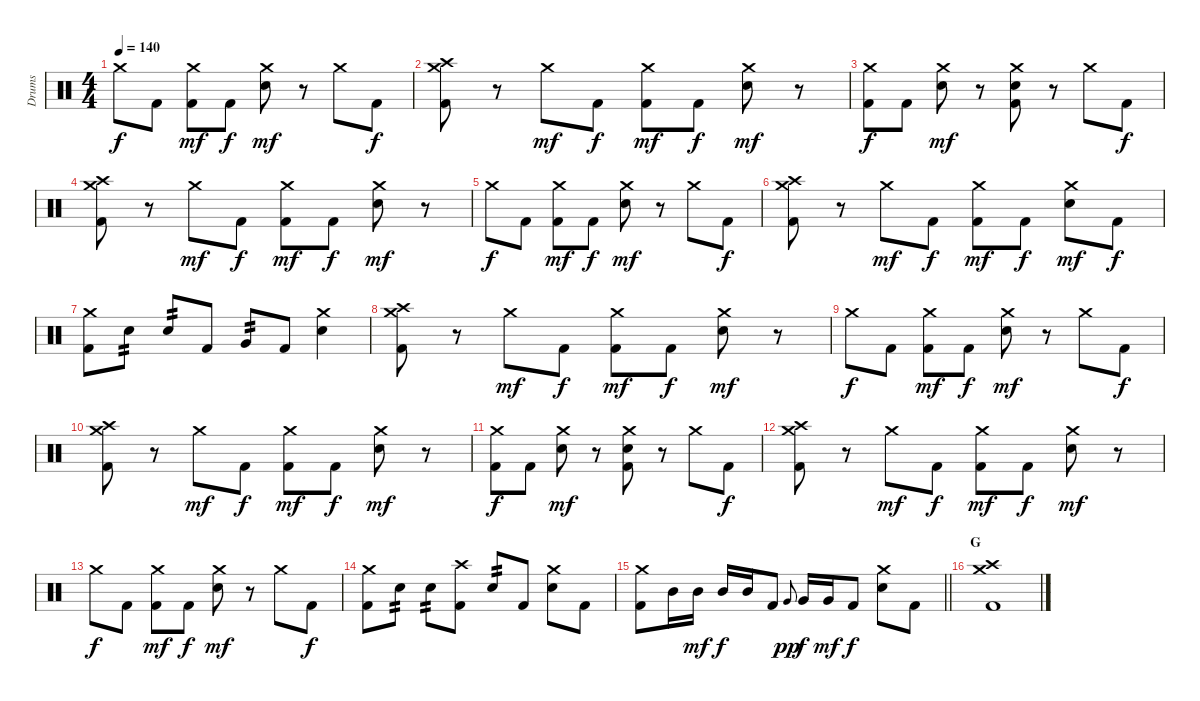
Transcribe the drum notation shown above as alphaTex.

\track ("Drums" "Drums") {instrument percussion}
\staff {score}
\articulation defaults
\ts (4 4)
\tempo 140
\clef neutral
\ks c "Crash medium (hit)".8{dy f} "Kick (hit) 2".8
("Crash medium (hit)" "Kick (hit) 2").8{dy mf} "Kick (hit) 2".8{dy f} ("Crash medium (hit)" "Snare (hit) 2").8{dy mf} r.8 "Crash medium (hit)".8 "Kick (hit) 2".8{dy f} |
("Crash high (hit)" "Crash medium (hit)" "Kick (hit) 2").8 r.8 "Crash medium (hit)".8{dy mf} "Kick (hit) 2".8{dy f} ("Crash medium (hit)" "Kick (hit) 2").8{dy mf} "Kick (hit) 2".8{dy f} ("Crash medium (hit)" "Snare (hit) 2").8{dy mf} r.8 |
("Crash medium (hit)" "Kick (hit) 2").8{dy f} "Kick (hit) 2".8 ("Crash medium (hit)" "Snare (hit) 2").8{dy mf} r.8 ("Crash medium (hit)" "Snare (hit) 2" "Kick (hit) 2").8 r.8 "Crash medium (hit)".8 "Kick (hit) 2".8{dy f} |
("Crash high (hit)" "Crash medium (hit)" "Kick (hit) 2").8 r.8 "Crash medium (hit)".8{dy mf} "Kick (hit) 2".8{dy f} ("Crash medium (hit)" "Kick (hit) 2").8{dy mf} "Kick (hit) 2".8{dy f} ("Crash medium (hit)" "Snare (hit) 2").8{dy mf} r.8 |
"Crash medium (hit)".8{dy f} "Kick (hit) 2".8 ("Crash medium (hit)" "Kick (hit) 2").8{dy mf} "Kick (hit) 2".8{dy f} ("Crash medium (hit)" "Snare (hit) 2").8{dy mf} r.8 "Crash medium (hit)".8 "Kick (hit) 2".8{dy f} |
("Crash high (hit)" "Crash medium (hit)" "Kick (hit) 2").8 r.8 "Crash medium (hit)".8{dy mf} "Kick (hit) 2".8{dy f} ("Crash medium (hit)" "Kick (hit) 2").8{dy mf} "Kick (hit) 2".8{dy f} ("Crash medium (hit)" "Snare (hit) 2").8{dy mf} "Kick (hit) 2".8{dy f} |
("Crash medium (hit)" "Kick (hit) 2").8 "Snare (hit) 2".8{tp 2} "Snare (hit) 2".8{tp 2} "Kick (hit) 2".8 "Very Low Tom (hit)".8{tp 2} "Kick (hit) 2".8 ("Crash medium (hit)" "Snare (hit) 2").4 |
("Crash high (hit)" "Crash medium (hit)" "Kick (hit) 2").8 r.8 "Crash medium (hit)".8{dy mf} "Kick (hit) 2".8{dy f} ("Crash medium (hit)" "Kick (hit) 2").8{dy mf} "Kick (hit) 2".8{dy f} ("Crash medium (hit)" "Snare (hit) 2").8{dy mf} r.8 |
"Crash medium (hit)".8{dy f} "Kick (hit) 2".8 ("Crash medium (hit)" "Kick (hit) 2").8{dy mf} "Kick (hit) 2".8{dy f} ("Crash medium (hit)" "Snare (hit) 2").8{dy mf} r.8 "Crash medium (hit)".8 "Kick (hit) 2".8{dy f} |
("Crash high (hit)" "Crash medium (hit)" "Kick (hit) 2").8 r.8 "Crash medium (hit)".8{dy mf} "Kick (hit) 2".8{dy f} ("Crash medium (hit)" "Kick (hit) 2").8{dy mf} "Kick (hit) 2".8{dy f} ("Crash medium (hit)" "Snare (hit) 2").8{dy mf} r.8 |
("Crash medium (hit)" "Kick (hit) 2").8{dy f} "Kick (hit) 2".8 ("Crash medium (hit)" "Snare (hit) 2").8{dy mf} r.8 ("Crash medium (hit)" "Snare (hit) 2" "Kick (hit) 2").8 r.8 "Crash medium (hit)".8 "Kick (hit) 2".8{dy f} |
("Crash high (hit)" "Crash medium (hit)" "Kick (hit) 2").8 r.8 "Crash medium (hit)".8{dy mf} "Kick (hit) 2".8{dy f} ("Crash medium (hit)" "Kick (hit) 2").8{dy mf} "Kick (hit) 2".8{dy f} ("Crash medium (hit)" "Snare (hit) 2").8{dy mf} r.8 |
"Crash medium (hit)".8{dy f} "Kick (hit) 2".8 ("Crash medium (hit)" "Kick (hit) 2").8{dy mf} "Kick (hit) 2".8{dy f} ("Crash medium (hit)" "Snare (hit) 2").8{dy mf} r.8 "Crash medium (hit)".8 "Kick (hit) 2".8{dy f} |
("Crash medium (hit)" "Kick (hit) 2").8 "Snare (hit) 2".8{tp 2} "Snare (hit) 2".8{tp 2} ("Crash high (hit)" "Kick (hit) 2").8 "Snare (hit) 2".8{tp 2} "Kick (hit) 2".8 ("Crash medium (hit)" "Snare (hit) 2").8 "Kick (hit) 2".8 |
\barLineRight lightlight
("Crash medium (hit)" "Kick (hit) 2").8 "Mid Tom (hit)".16 "Mid Tom (hit)".16{dy mf} "Mid Tom (hit)".16{dy f} "Mid Tom (hit)".16 "Kick (hit) 2".8 "Very Low Tom (hit)".8{gr onbeat dy pp} "Very Low Tom (hit)".16{dy f} "Very Low Tom (hit)".16{dy mf} "Kick (hit) 2".8{dy f} ("Crash medium (hit)" "Snare (hit) 2").8 "Kick (hit) 2".8 |
\section ("" "G")
("Crash high (hit)" "Crash medium (hit)" "Kick (hit) 2").1
